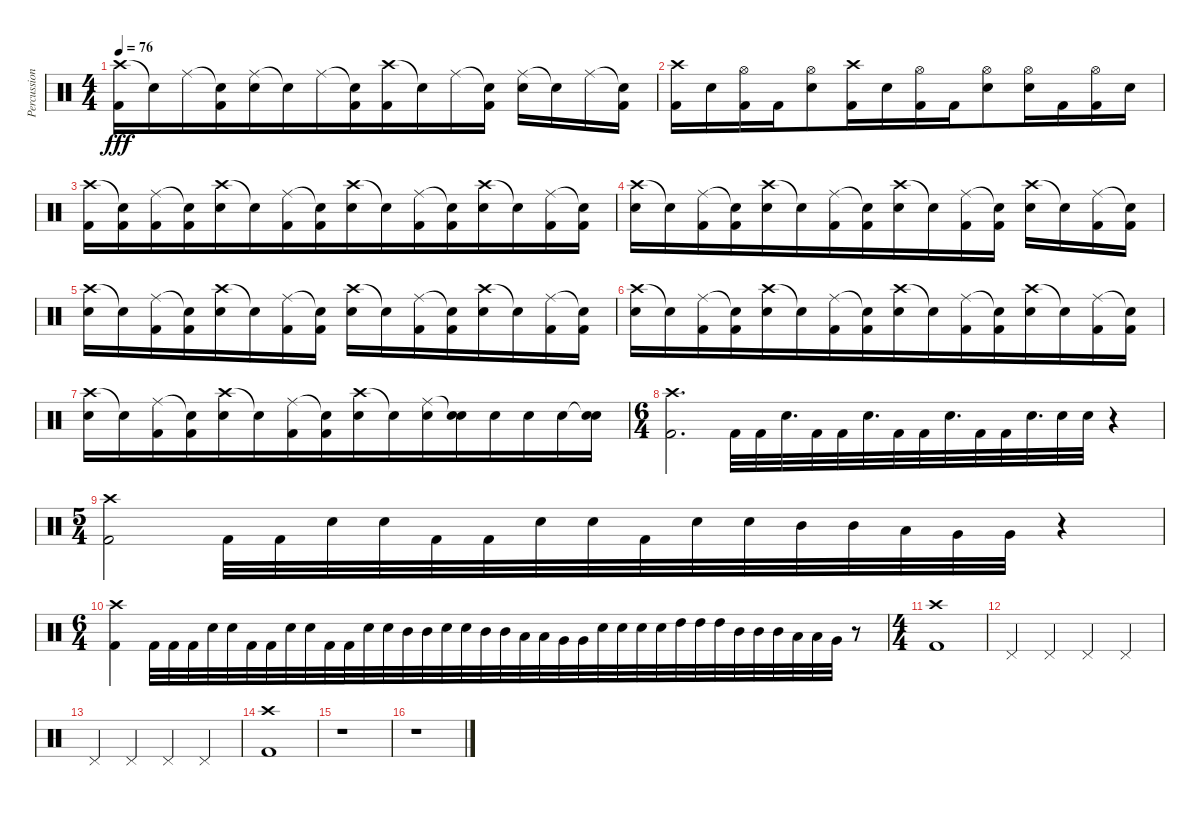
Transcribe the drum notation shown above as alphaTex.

\track ("Percussion" "Percussion") {instrument percussion}
\staff {score}
\articulation defaults
\ts (4 4)
\tempo 76
\clef neutral
\ks c
("Crash high (hit)" "Kick (hit) 2").16{dy fff beam merge} "Snare (hit)"{t}.16{beam merge} "Ride (middle)".16{beam merge} ("Snare (hit)"{t} "Kick (hit) 2").16{beam merge} ("Ride (middle)" "Snare (hit) 2").16{beam merge} "Snare (hit)"{t}.16{beam merge} "Ride (middle)".16{beam merge} ("Snare (hit)"{t} "Kick (hit) 2").16{beam merge} ("Crash high (hit)" "Kick (hit) 2").16{beam merge} "Snare (hit)"{t}.16{beam merge} "Ride (middle)".16{beam merge} ("Snare (hit)"{t} "Kick (hit) 2").16 ("Ride (middle)" "Snare (hit) 2").16{beam merge} "Snare (hit)"{t}.16{beam merge} "Ride (middle)".16{beam merge} ("Snare (hit)"{t} "Kick (hit) 2").16 |
("Crash high (hit)" "Kick (hit) 2").16{beam merge} "Snare (hit) 2".16{beam merge} ("Hi-Hat (open)" "Kick (hit) 2").16{beam merge} "Kick (hit) 2".16{beam merge} ("Hi-Hat (open)" "Snare (hit) 2").8 ("Crash high (hit)" "Kick (hit) 2").16 "Snare (hit) 2".16{beam merge} ("Hi-Hat (open)" "Kick (hit) 2").16{beam merge} "Kick (hit) 2".16{beam merge} ("Hi-Hat (open)" "Snare (hit) 2").8{beam merge} ("Hi-Hat (open)" "Snare (hit) 2").16{beam merge} "Kick (hit) 2".16{beam merge} ("Hi-Hat (open)" "Kick (hit) 2").16{beam merge} "Snare (hit) 2".16 |
("Crash high (hit)" "Kick (hit) 2").16{beam merge} ("Snare (hit)"{t} "Kick (hit) 2").16 ("Ride (middle)" "Kick (hit) 2").16{beam merge} ("Snare (hit)"{t} "Kick (hit) 2").16{beam merge} ("Crash high (hit)" "Snare (hit) 2").16{beam merge} "Snare (hit)"{t}.16{beam merge} ("Ride (middle)" "Kick (hit) 2").16{beam merge} ("Snare (hit)"{t} "Kick (hit) 2").16{beam merge} ("Crash high (hit)" "Snare (hit) 2").16{beam merge} "Snare (hit)"{t}.16{beam merge} ("Ride (middle)" "Kick (hit) 2").16{beam merge} ("Snare (hit)"{t} "Kick (hit) 2").16{beam merge} ("Crash high (hit)" "Snare (hit) 2").16{beam merge} "Snare (hit)"{t}.16{beam merge} ("Ride (middle)" "Kick (hit) 2").16{beam merge} ("Snare (hit)"{t} "Kick (hit) 2").16 |
("Crash high (hit)" "Snare (hit) 2").16 "Snare (hit)"{t}.16{beam merge} ("Ride (middle)" "Kick (hit) 2").16{beam merge} ("Snare (hit)"{t} "Kick (hit) 2").16{beam merge} ("Crash high (hit)" "Snare (hit) 2").16{beam merge} "Snare (hit)"{t}.16{beam merge} ("Ride (middle)" "Kick (hit) 2").16{beam merge} ("Snare (hit)"{t} "Kick (hit) 2").16{beam merge} ("Crash high (hit)" "Snare (hit) 2").16{beam merge} "Snare (hit)"{t}.16{beam merge} ("Ride (middle)" "Kick (hit) 2").16{beam merge} ("Snare (hit)"{t} "Kick (hit) 2").16 ("Crash high (hit)" "Snare (hit) 2").16{beam merge} "Snare (hit)"{t}.16 ("Ride (middle)" "Kick (hit) 2").16{beam merge} ("Snare (hit)"{t} "Kick (hit) 2").16 |
("Crash high (hit)" "Snare (hit) 2").16{beam merge} "Snare (hit)"{t}.16{beam merge} ("Ride (middle)" "Kick (hit) 2").16{beam merge} ("Snare (hit)"{t} "Kick (hit) 2").16{beam merge} ("Crash high (hit)" "Snare (hit) 2").16{beam merge} "Snare (hit)"{t}.16{beam merge} ("Ride (middle)" "Kick (hit) 2").16{beam merge} ("Snare (hit)"{t} "Kick (hit) 2").16 ("Crash high (hit)" "Snare (hit) 2").16{beam merge} "Snare (hit)"{t}.16{beam merge} ("Ride (middle)" "Kick (hit) 2").16{beam merge} ("Snare (hit)"{t} "Kick (hit) 2").16{beam merge} ("Crash high (hit)" "Snare (hit) 2").16{beam merge} "Snare (hit)"{t}.16{beam merge} ("Ride (middle)" "Kick (hit) 2").16{beam merge} ("Snare (hit)"{t} "Kick (hit) 2").16 |
("Crash high (hit)" "Snare (hit) 2").16{beam merge} "Snare (hit)"{t}.16{beam merge} ("Ride (middle)" "Kick (hit) 2").16{beam merge} ("Snare (hit)"{t} "Kick (hit) 2").16{beam merge} ("Crash high (hit)" "Snare (hit) 2").16{beam merge} "Snare (hit)"{t}.16{beam merge} ("Ride (middle)" "Kick (hit) 2").16{beam merge} ("Snare (hit)"{t} "Kick (hit) 2").16{beam merge} ("Crash high (hit)" "Snare (hit) 2").16{beam merge} "Snare (hit)"{t}.16 ("Ride (middle)" "Kick (hit) 2").16{beam merge} ("Snare (hit)"{t} "Kick (hit) 2").16{beam merge} ("Crash high (hit)" "Snare (hit) 2").16{beam merge} "Snare (hit)"{t}.16{beam merge} ("Ride (middle)" "Kick (hit) 2").16{beam merge} ("Snare (hit)"{t} "Kick (hit) 2").16 |
("Crash high (hit)" "Snare (hit) 2").16 "Snare (hit)"{t}.16{beam merge} ("Ride (middle)" "Kick (hit) 2").16{beam merge} ("Snare (hit)"{t} "Kick (hit) 2").16{beam merge} ("Crash high (hit)" "Snare (hit) 2").16{beam merge} "Snare (hit)"{t}.16{beam merge} ("Ride (middle)" "Kick (hit) 2").16{beam merge} ("Snare (hit)"{t} "Kick (hit) 2").16{beam merge} ("Crash high (hit)" "Snare (hit) 2").16{beam merge} "Snare (hit)"{t}.16{beam merge} ("Ride (middle)" "Snare (hit) 2").16{beam merge} ("Snare (hit)"{t} "Snare (hit) 2").16{beam merge} "Snare (hit) 2".16{beam merge} "Snare (hit) 2".16{beam merge} "Snare (hit) 2".16{beam merge} ("Snare (hit)"{t} "Snare (hit) 2").16 |
\ts (6 4)
("Crash high (hit)" "Kick (hit) 2").2{d beam merge} "Kick (hit) 2".32{beam merge} "Kick (hit) 2".32{beam merge} "Snare (hit) 2".32{d beam merge} "Kick (hit) 2".32{beam merge} "Kick (hit) 2".32{beam merge} "Snare (hit) 2".32{d beam merge} "Kick (hit) 2".32{beam merge} "Kick (hit) 2".32{beam merge} "Snare (hit) 2".32{d beam merge} "Kick (hit) 2".32{beam merge} "Kick (hit) 2".32{beam merge} "Snare (hit) 2".32{d beam merge} "Snare (hit) 2".32{beam merge} "Snare (hit) 2".32 r.4 |
\ts (5 4)
("Crash high (hit)" "Kick (hit) 2").2{beam merge} "Kick (hit) 2".32{beam merge} "Kick (hit) 2".32{beam merge} "Snare (hit) 2".32{beam merge} "Snare (hit) 2".32{beam merge} "Kick (hit) 2".32{beam merge} "Kick (hit) 2".32{beam merge} "Snare (hit) 2".32{beam merge} "Snare (hit) 2".32{beam merge} "Kick (hit) 2".32{beam merge} "Snare (hit) 2".32{beam merge} "Snare (hit) 2".32 "Mid Tom (hit)".32{beam merge} "Mid Tom (hit)".32{beam merge} "Low Tom (hit)".32{beam merge} "Very Low Tom (hit)".32{beam merge} "Very Low Tom (hit)".32 r.4 |
\ts (6 4)
("Crash high (hit)" "Kick (hit) 2").4{beam merge} "Kick (hit) 2".32{beam merge} "Kick (hit) 2".32{beam merge} "Kick (hit) 2".32 "Snare (hit) 2".32{beam merge} "Snare (hit) 2".32{beam merge} "Kick (hit) 2".32{beam merge} "Kick (hit) 2".32{beam merge} "Snare (hit) 2".32{beam merge} "Snare (hit) 2".32{beam merge} "Kick (hit) 2".32{beam merge} "Kick (hit) 2".32{beam merge} "Snare (hit) 2".32{beam merge} "Snare (hit) 2".32{beam merge} "Mid Tom (hit)".32{beam merge} "Mid Tom (hit)".32{beam merge} "Snare (hit) 2".32{beam merge} "Snare (hit) 2".32{beam merge} "Mid Tom (hit)".32{beam merge} "Mid Tom (hit)".32{beam merge} "Low Tom (hit)".32{beam merge} "Low Tom (hit)".32{beam merge} "Very Low Tom (hit)".32{beam merge} "Very Low Tom (hit)".32{beam merge} "Snare (hit) 2".32{beam merge} "Snare (hit) 2".32{beam merge} "Snare (hit) 2".32{beam merge} "Snare (hit) 2".32{beam merge} "High Tom (hit)".32{beam merge} "High Tom (hit)".32 "High Tom (hit)".32{beam merge} "Mid Tom (hit)".32{beam merge} "Mid Tom (hit)".32{beam merge} "Mid Tom (hit)".32{beam merge} "Low Tom (hit)".32{beam merge} "Low Tom (hit)".32{beam merge} "Very Low Tom (hit)".32 r.8 |
\ts (4 4)
("Crash high (hit)" "Kick (hit) 2").1 |
"Pedal Hi-Hat (hit)".4 "Pedal Hi-Hat (hit)".4{beam merge} "Pedal Hi-Hat (hit)".4 "Pedal Hi-Hat (hit)".4 |
"Pedal Hi-Hat (hit)".4{beam merge} "Pedal Hi-Hat (hit)".4{beam merge} "Pedal Hi-Hat (hit)".4 "Pedal Hi-Hat (hit)".4 |
("Crash high (hit)" "Kick (hit) 2").1 |
r.1 |
r.1
